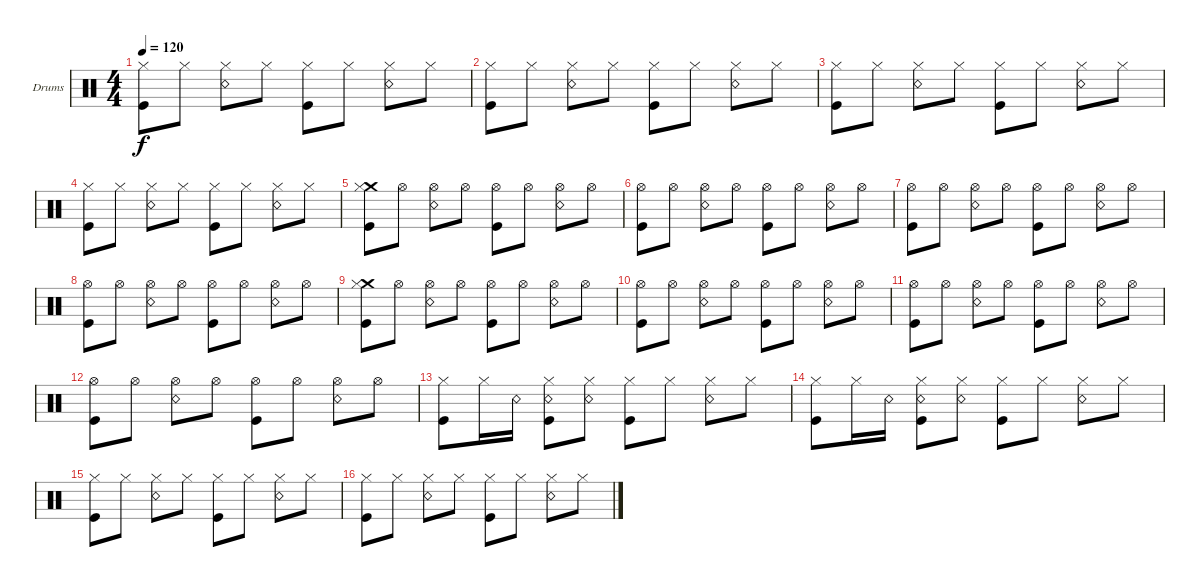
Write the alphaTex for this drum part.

\defaultSystemsLayout 4
\bracketExtendMode groupsimilarinstruments
\firstSystemTrackNameOrientation horizontal
\otherSystemsTrackNameOrientation horizontal
\track ("Drumkit" "Drums") {instrument percussion}
\staff {score}
\articulation defaults
\ts (4 4)
\tempo 120
\clef neutral
\scale
0.333333
\ks c
("Kick (hit)" "Hi-Hat (closed)").8{dy f} "Hi-Hat (closed)".8 ("Hi-Hat (closed)" "Snare (rim shot)").8 "Hi-Hat (closed)".8 ("Hi-Hat (closed)" "Kick (hit)").8 "Hi-Hat (closed)".8 ("Hi-Hat (closed)" "Snare (rim shot)").8 "Hi-Hat (closed)".8 |
\scale
0.333333 ("Kick (hit)" "Hi-Hat (closed)").8 "Hi-Hat (closed)".8 ("Hi-Hat (closed)" "Snare (rim shot)").8 "Hi-Hat (closed)".8 ("Hi-Hat (closed)" "Kick (hit)").8 "Hi-Hat (closed)".8 ("Hi-Hat (closed)" "Snare (rim shot)").8 "Hi-Hat (closed)".8 |
\scale
0.333333 ("Kick (hit)" "Hi-Hat (closed)").8 "Hi-Hat (closed)".8 ("Hi-Hat (closed)" "Snare (rim shot)").8 "Hi-Hat (closed)".8 ("Hi-Hat (closed)" "Kick (hit)").8 "Hi-Hat (closed)".8 ("Hi-Hat (closed)" "Snare (rim shot)").8 "Hi-Hat (closed)".8 |
\scale
0.333333 ("Kick (hit)" "Hi-Hat (closed)").8 "Hi-Hat (closed)".8 ("Hi-Hat (closed)" "Snare (rim shot)").8 "Hi-Hat (closed)".8 ("Hi-Hat (closed)" "Kick (hit)").8 "Hi-Hat (closed)".8 ("Hi-Hat (closed)" "Snare (rim shot)").8 "Hi-Hat (closed)".8 |
\scale
0.333333 ("Kick (hit)" "Crash medium (hit)" "Hi-Hat (closed)").8 "Hi-Hat (open)".8 ("Hi-Hat (open)" "Snare (rim shot)").8 "Hi-Hat (open)".8 ("Hi-Hat (open)" "Kick (hit)").8 "Hi-Hat (open)".8 ("Hi-Hat (open)" "Snare (rim shot)").8 "Hi-Hat (open)".8 |
\scale
0.333333 ("Kick (hit)" "Hi-Hat (open)").8 "Hi-Hat (open)".8 ("Hi-Hat (open)" "Snare (rim shot)").8 "Hi-Hat (open)".8 ("Hi-Hat (open)" "Kick (hit)").8 "Hi-Hat (open)".8 ("Hi-Hat (open)" "Snare (rim shot)").8 "Hi-Hat (open)".8 |
\scale
0.333333 ("Kick (hit)" "Hi-Hat (open)").8 "Hi-Hat (open)".8 ("Hi-Hat (open)" "Snare (rim shot)").8 "Hi-Hat (open)".8 ("Hi-Hat (open)" "Kick (hit)").8 "Hi-Hat (open)".8 ("Hi-Hat (open)" "Snare (rim shot)").8 "Hi-Hat (open)".8 |
\scale
0.333333 ("Kick (hit)" "Hi-Hat (open)").8 "Hi-Hat (open)".8 ("Hi-Hat (open)" "Snare (rim shot)").8 "Hi-Hat (open)".8 ("Hi-Hat (open)" "Kick (hit)").8 "Hi-Hat (open)".8 ("Hi-Hat (open)" "Snare (rim shot)").8 "Hi-Hat (open)".8 |
\scale
0.333333 ("Kick (hit)" "Crash medium (hit)" "Hi-Hat (closed)").8 "Hi-Hat (open)".8 ("Hi-Hat (open)" "Snare (rim shot)").8 "Hi-Hat (open)".8 ("Hi-Hat (open)" "Kick (hit)").8 "Hi-Hat (open)".8 ("Hi-Hat (open)" "Snare (rim shot)").8 "Hi-Hat (open)".8 |
\scale
0.333333 ("Kick (hit)" "Hi-Hat (open)").8 "Hi-Hat (open)".8 ("Hi-Hat (open)" "Snare (rim shot)").8 "Hi-Hat (open)".8 ("Hi-Hat (open)" "Kick (hit)").8 "Hi-Hat (open)".8 ("Hi-Hat (open)" "Snare (rim shot)").8 "Hi-Hat (open)".8 |
\scale
0.333333 ("Kick (hit)" "Hi-Hat (open)").8 "Hi-Hat (open)".8 ("Hi-Hat (open)" "Snare (rim shot)").8 "Hi-Hat (open)".8 ("Hi-Hat (open)" "Kick (hit)").8 "Hi-Hat (open)".8 ("Hi-Hat (open)" "Snare (rim shot)").8 "Hi-Hat (open)".8 |
\scale
0.333333 ("Kick (hit)" "Hi-Hat (open)").8 "Hi-Hat (open)".8 ("Hi-Hat (open)" "Snare (rim shot)").8 "Hi-Hat (open)".8 ("Hi-Hat (open)" "Kick (hit)").8 "Hi-Hat (open)".8 ("Hi-Hat (open)" "Snare (rim shot)").8 "Hi-Hat (open)".8 |
\scale
0.333333 ("Kick (hit)" "Hi-Hat (closed)").8 "Hi-Hat (closed)".16 "Snare (rim shot)".16 ("Snare (rim shot)" "Kick (hit)" "Hi-Hat (closed)").8 ("Snare (rim shot)" "Hi-Hat (closed)").8 ("Kick (hit)" "Hi-Hat (closed)").8 "Hi-Hat (closed)".8 ("Snare (rim shot)" "Hi-Hat (closed)").8 "Hi-Hat (closed)".8 |
\scale
0.333333 ("Kick (hit)" "Hi-Hat (closed)").8 "Hi-Hat (closed)".16 "Snare (rim shot)".16 ("Snare (rim shot)" "Kick (hit)" "Hi-Hat (closed)").8 ("Snare (rim shot)" "Hi-Hat (closed)").8 ("Kick (hit)" "Hi-Hat (closed)").8 "Hi-Hat (closed)".8 ("Snare (rim shot)" "Hi-Hat (closed)").8 "Hi-Hat (closed)".8 |
\scale
0.333333 ("Kick (hit)" "Hi-Hat (closed)").8 "Hi-Hat (closed)".8 ("Hi-Hat (closed)" "Snare (rim shot)").8 "Hi-Hat (closed)".8 ("Hi-Hat (closed)" "Kick (hit)").8 "Hi-Hat (closed)".8 ("Hi-Hat (closed)" "Snare (rim shot)").8 "Hi-Hat (closed)".8 |
\scale
0.333333 ("Kick (hit)" "Hi-Hat (closed)").8 "Hi-Hat (closed)".8 ("Hi-Hat (closed)" "Snare (rim shot)").8 "Hi-Hat (closed)".8 ("Hi-Hat (closed)" "Kick (hit)").8 "Hi-Hat (closed)".8 ("Hi-Hat (closed)" "Snare (rim shot)").8 "Hi-Hat (closed)".8
